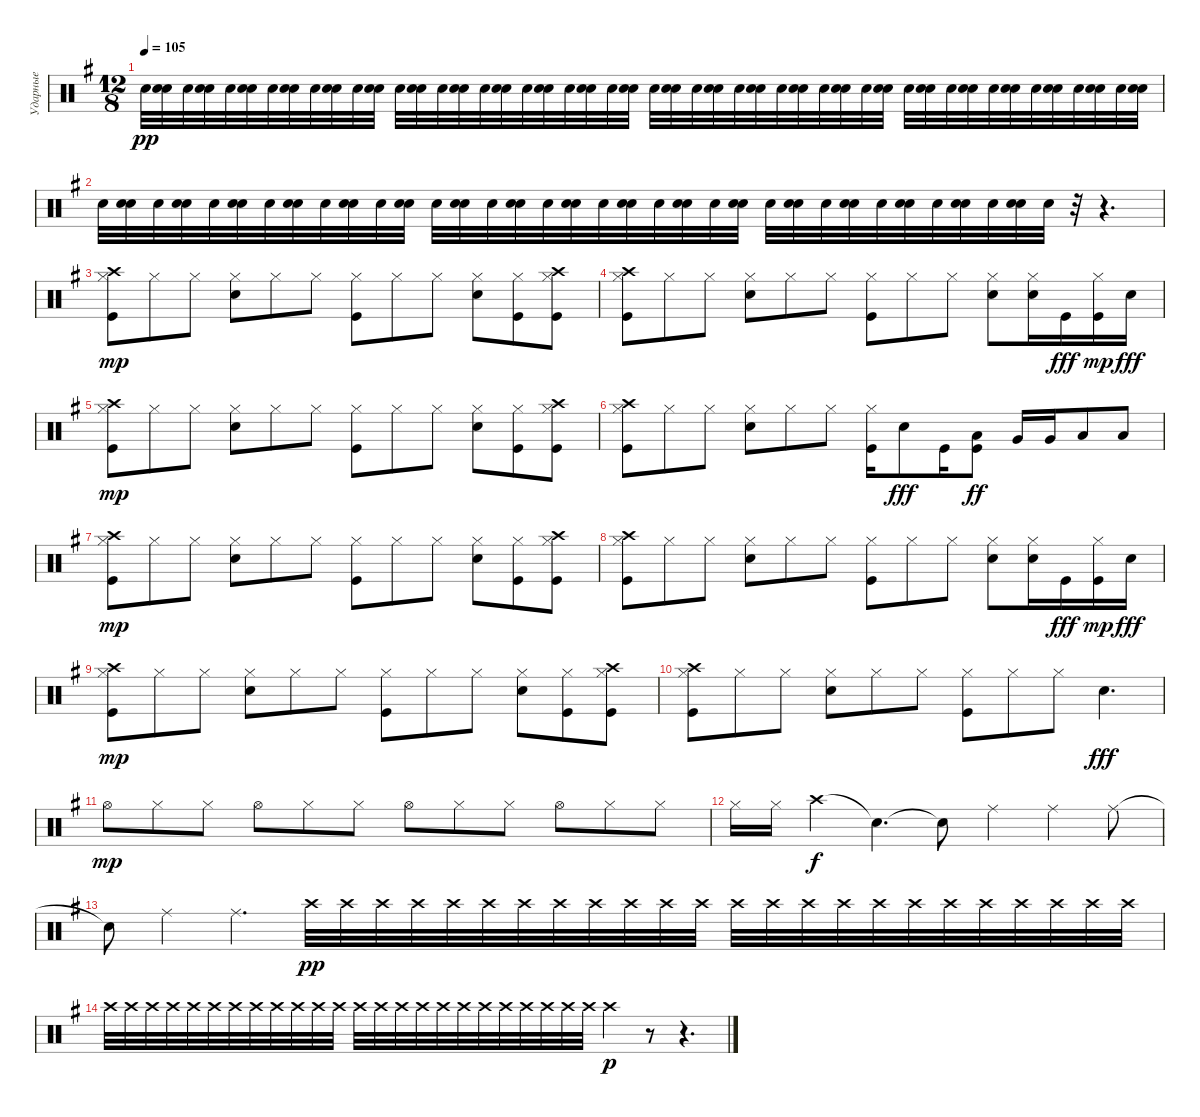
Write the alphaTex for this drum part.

\track ("Ударные" "Ударные") {instrument percussion}
\staff {score}
\articulation defaults
\ts (12 8)
\tempo 105
\clef neutral
\ks eminor "Snare (hit) 2".32{dy pp}
("Snare (hit) 2" "Snare (hit) 2").32 "Snare (hit) 2".32 ("Snare (hit) 2" "Snare (hit) 2").32 "Snare (hit) 2".32 ("Snare (hit) 2" "Snare (hit) 2").32 "Snare (hit) 2".32 ("Snare (hit) 2" "Snare (hit) 2").32 "Snare (hit) 2".32 ("Snare (hit) 2" "Snare (hit) 2").32 "Snare (hit) 2".32 ("Snare (hit) 2" "Snare (hit) 2").32 "Snare (hit) 2".32 ("Snare (hit) 2" "Snare (hit) 2").32 "Snare (hit) 2".32 ("Snare (hit) 2" "Snare (hit) 2").32 "Snare (hit) 2".32 ("Snare (hit) 2" "Snare (hit) 2").32 "Snare (hit) 2".32 ("Snare (hit) 2" "Snare (hit) 2").32 "Snare (hit) 2".32 ("Snare (hit) 2" "Snare (hit) 2").32 "Snare (hit) 2".32 ("Snare (hit) 2" "Snare (hit) 2").32 "Snare (hit) 2".32 ("Snare (hit) 2" "Snare (hit) 2").32 "Snare (hit) 2".32 ("Snare (hit) 2" "Snare (hit) 2").32 "Snare (hit) 2".32 ("Snare (hit) 2" "Snare (hit) 2").32 "Snare (hit) 2".32 ("Snare (hit) 2" "Snare (hit) 2").32 "Snare (hit) 2".32 ("Snare (hit) 2" "Snare (hit) 2").32 "Snare (hit) 2".32 ("Snare (hit) 2" "Snare (hit) 2").32 "Snare (hit) 2".32 ("Snare (hit) 2" "Snare (hit) 2").32 "Snare (hit) 2".32 ("Snare (hit) 2" "Snare (hit) 2").32 "Snare (hit) 2".32 ("Snare (hit) 2" "Snare (hit) 2").32 "Snare (hit) 2".32 ("Snare (hit) 2" "Snare (hit) 2").32 "Snare (hit) 2".32 ("Snare (hit) 2" "Snare (hit) 2").32 "Snare (hit) 2".32 ("Snare (hit) 2" "Snare (hit) 2").32 |
"Snare (hit) 2".32 ("Snare (hit) 2" "Snare (hit) 2").32 "Snare (hit) 2".32 ("Snare (hit) 2" "Snare (hit) 2").32 "Snare (hit) 2".32 ("Snare (hit) 2" "Snare (hit) 2").32 "Snare (hit) 2".32 ("Snare (hit) 2" "Snare (hit) 2").32 "Snare (hit) 2".32 ("Snare (hit) 2" "Snare (hit) 2").32 "Snare (hit) 2".32 ("Snare (hit) 2" "Snare (hit) 2").32 "Snare (hit) 2".32 ("Snare (hit) 2" "Snare (hit) 2").32 "Snare (hit) 2".32 ("Snare (hit) 2" "Snare (hit) 2").32 "Snare (hit) 2".32 ("Snare (hit) 2" "Snare (hit) 2").32 "Snare (hit) 2".32 ("Snare (hit) 2" "Snare (hit) 2").32 "Snare (hit) 2".32 ("Snare (hit) 2" "Snare (hit) 2").32 "Snare (hit) 2".32 ("Snare (hit) 2" "Snare (hit) 2").32 "Snare (hit) 2".32 ("Snare (hit) 2" "Snare (hit) 2").32 "Snare (hit) 2".32 ("Snare (hit) 2" "Snare (hit) 2").32 "Snare (hit) 2".32 ("Snare (hit) 2" "Snare (hit) 2").32 "Snare (hit) 2".32 ("Snare (hit) 2" "Snare (hit) 2").32 "Snare (hit) 2".32 ("Snare (hit) 2" "Snare (hit) 2").32 "Snare (hit) 2".32 r.32 r.4{d} |
("Crash high (hit)" "Kick (hit)" "Hi-Hat (closed)").8{dy mp} "Hi-Hat (closed)".8 "Hi-Hat (closed)".8 ("Electric Snare (hit)" "Hi-Hat (closed)").8 "Hi-Hat (closed)".8 "Hi-Hat (closed)".8 ("Kick (hit)" "Hi-Hat (closed)").8 "Hi-Hat (closed)".8 "Hi-Hat (closed)".8 ("Electric Snare (hit)" "Hi-Hat (closed)").8 ("Kick (hit)" "Hi-Hat (closed)").8 ("Crash high (hit)" "Kick (hit)" "Hi-Hat (closed)").8 |
("Crash high (hit)" "Kick (hit)" "Hi-Hat (closed)").8 "Hi-Hat (closed)".8 "Hi-Hat (closed)".8 ("Electric Snare (hit)" "Hi-Hat (closed)").8 "Hi-Hat (closed)".8 "Hi-Hat (closed)".8 ("Kick (hit)" "Hi-Hat (closed)").8 "Hi-Hat (closed)".8 "Hi-Hat (closed)".8 ("Electric Snare (hit)" "Hi-Hat (closed)").8 ("Electric Snare (hit)" "Hi-Hat (closed)").16 "Kick (hit)".16{dy fff} ("Kick (hit)" "Hi-Hat (closed)").16{dy mp} "Electric Snare (hit)".16{dy fff} |
("Crash high (hit)" "Kick (hit)" "Hi-Hat (closed)").8{dy mp} "Hi-Hat (closed)".8 "Hi-Hat (closed)".8 ("Electric Snare (hit)" "Hi-Hat (closed)").8 "Hi-Hat (closed)".8 "Hi-Hat (closed)".8 ("Kick (hit)" "Hi-Hat (closed)").8 "Hi-Hat (closed)".8 "Hi-Hat (closed)".8 ("Electric Snare (hit)" "Hi-Hat (closed)").8 ("Kick (hit)" "Hi-Hat (closed)").8 ("Crash high (hit)" "Kick (hit)" "Hi-Hat (closed)").8 |
("Crash high (hit)" "Kick (hit)" "Hi-Hat (closed)").8 "Hi-Hat (closed)".8 "Hi-Hat (closed)".8 ("Electric Snare (hit)" "Hi-Hat (closed)").8 "Hi-Hat (closed)".8 "Hi-Hat (closed)".8 ("Kick (hit)" "Hi-Hat (closed)").16 "Electric Snare (hit)".8{dy fff} "Kick (hit)".16 ("Kick (hit)" "Low Floor Tom (hit)").8{dy ff} "Very Low Tom (hit)".16 "Very Low Tom (hit)".16 "Low Tom (hit)".8 "Low Floor Tom (hit)".8 |
("Crash high (hit)" "Kick (hit)" "Hi-Hat (closed)").8{dy mp} "Hi-Hat (closed)".8 "Hi-Hat (closed)".8 ("Electric Snare (hit)" "Hi-Hat (closed)").8 "Hi-Hat (closed)".8 "Hi-Hat (closed)".8 ("Kick (hit)" "Hi-Hat (closed)").8 "Hi-Hat (closed)".8 "Hi-Hat (closed)".8 ("Electric Snare (hit)" "Hi-Hat (closed)").8 ("Kick (hit)" "Hi-Hat (closed)").8 ("Crash high (hit)" "Kick (hit)" "Hi-Hat (closed)").8 |
("Crash high (hit)" "Kick (hit)" "Hi-Hat (closed)").8 "Hi-Hat (closed)".8 "Hi-Hat (closed)".8 ("Electric Snare (hit)" "Hi-Hat (closed)").8 "Hi-Hat (closed)".8 "Hi-Hat (closed)".8 ("Kick (hit)" "Hi-Hat (closed)").8 "Hi-Hat (closed)".8 "Hi-Hat (closed)".8 ("Electric Snare (hit)" "Hi-Hat (closed)").8 ("Electric Snare (hit)" "Hi-Hat (closed)").16 "Kick (hit)".16{dy fff} ("Kick (hit)" "Hi-Hat (closed)").16{dy mp} "Electric Snare (hit)".16{dy fff} |
("Crash high (hit)" "Kick (hit)" "Hi-Hat (closed)").8{dy mp} "Hi-Hat (closed)".8 "Hi-Hat (closed)".8 ("Electric Snare (hit)" "Hi-Hat (closed)").8 "Hi-Hat (closed)".8 "Hi-Hat (closed)".8 ("Kick (hit)" "Hi-Hat (closed)").8 "Hi-Hat (closed)".8 "Hi-Hat (closed)".8 ("Electric Snare (hit)" "Hi-Hat (closed)").8 ("Kick (hit)" "Hi-Hat (closed)").8 ("Crash high (hit)" "Kick (hit)" "Hi-Hat (closed)").8 |
("Crash high (hit)" "Kick (hit)" "Hi-Hat (closed)").8 "Hi-Hat (closed)".8 "Hi-Hat (closed)".8 ("Electric Snare (hit)" "Hi-Hat (closed)").8 "Hi-Hat (closed)".8 "Hi-Hat (closed)".8 ("Kick (hit)" "Hi-Hat (closed)").8 "Hi-Hat (closed)".8 "Hi-Hat (closed)".8 "Electric Snare (hit)".4{d dy fff} |
"Hi-Hat (open)".8{dy mp} "Hi-Hat (closed)".8 "Hi-Hat (closed)".8 "Hi-Hat (open)".8 "Hi-Hat (closed)".8 "Hi-Hat (closed)".8 "Hi-Hat (open)".8 "Hi-Hat (closed)".8 "Hi-Hat (closed)".8 "Hi-Hat (open)".8 "Hi-Hat (closed)".8 "Hi-Hat (closed)".8 |
"Hi-Hat (closed)".16 "Hi-Hat (closed)".16 "Crash high (hit)".4{dy f} "Snare (hit)"{t}.4{d} "Snare (hit)"{t}.8 "Ride (middle)".4 "Ride (middle)".4 "Ride (middle)".8 |
"Snare (hit)"{t}.8 "Ride (middle)".4 "Ride (middle)".4{d} "Crash high (hit)".32{dy pp} "Crash high (hit)".32 "Crash high (hit)".32 "Crash high (hit)".32 "Crash high (hit)".32 "Crash high (hit)".32 "Crash high (hit)".32 "Crash high (hit)".32 "Crash high (hit)".32 "Crash high (hit)".32 "Crash high (hit)".32 "Crash high (hit)".32 "Crash high (hit)".32 "Crash high (hit)".32 "Crash high (hit)".32 "Crash high (hit)".32 "Crash high (hit)".32 "Crash high (hit)".32 "Crash high (hit)".32 "Crash high (hit)".32 "Crash high (hit)".32 "Crash high (hit)".32 "Crash high (hit)".32 "Crash high (hit)".32 |
"Crash high (hit)".32 "Crash high (hit)".32 "Crash high (hit)".32 "Crash high (hit)".32 "Crash high (hit)".32 "Crash high (hit)".32 "Crash high (hit)".32 "Crash high (hit)".32 "Crash high (hit)".32 "Crash high (hit)".32 "Crash high (hit)".32 "Crash high (hit)".32 "Crash high (hit)".32 "Crash high (hit)".32 "Crash high (hit)".32 "Crash high (hit)".32 "Crash high (hit)".32 "Crash high (hit)".32 "Crash high (hit)".32 "Crash high (hit)".32 "Crash high (hit)".32 "Crash high (hit)".32 "Crash high (hit)".32 "Crash high (hit)".32 "Crash high (hit)".4{dy p} r.8 r.4{d}
